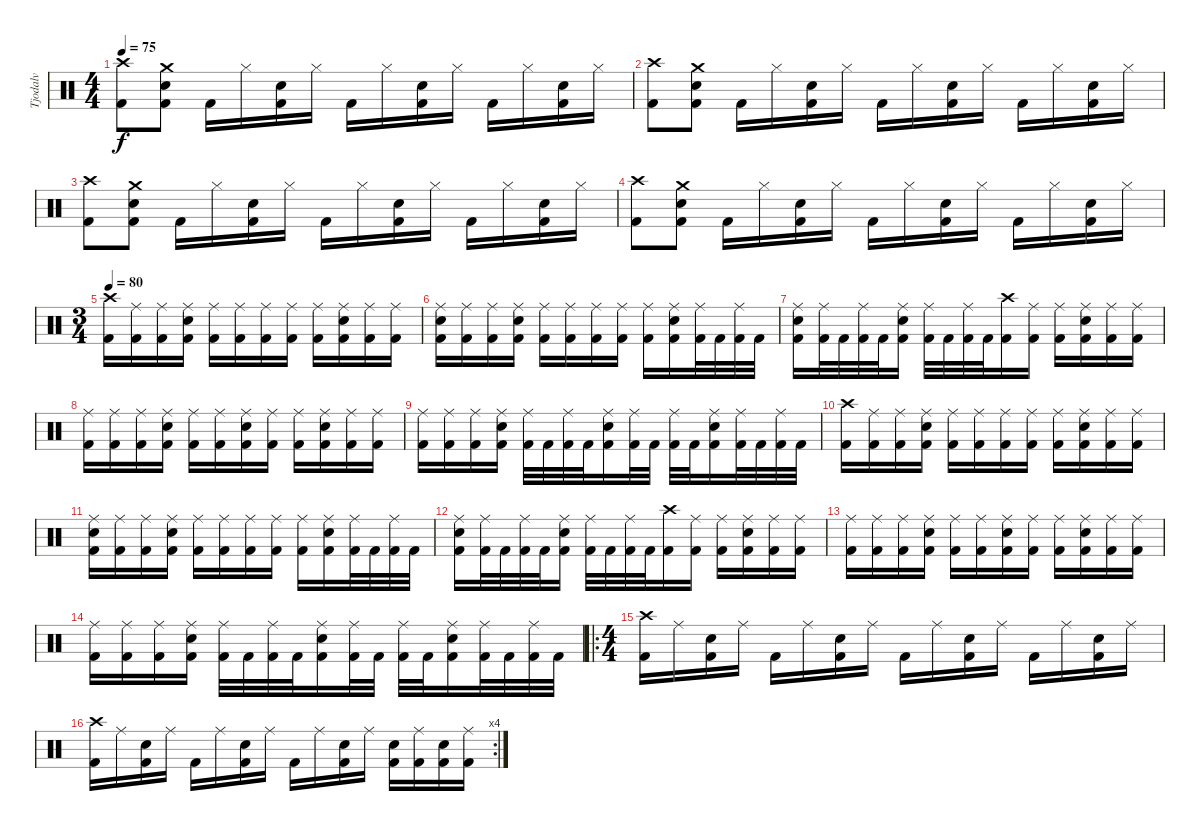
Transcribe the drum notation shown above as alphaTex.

\track ("Tjodalv" "Tjodalv") {instrument percussion}
\staff {score}
\articulation defaults
\ts (4 4)
\tempo 75
\clef neutral
\ks c
("Crash high (hit)" "Kick (hit) 2").8{dy f} ("Crash medium (hit)" "Electric Snare (hit)" "Kick (hit) 2").8 "Kick (hit) 2".16 "Hi-Hat (closed)".16 ("Electric Snare (hit)" "Kick (hit) 2").16 "Hi-Hat (closed)".16 "Kick (hit) 2".16 "Hi-Hat (closed)".16 ("Electric Snare (hit)" "Kick (hit) 2").16 "Hi-Hat (closed)".16 "Kick (hit) 2".16 "Hi-Hat (closed)".16 ("Electric Snare (hit)" "Kick (hit) 2").16 "Hi-Hat (closed)".16 |
("Crash high (hit)" "Kick (hit) 2").8 ("Crash medium (hit)" "Electric Snare (hit)" "Kick (hit) 2").8 "Kick (hit) 2".16 "Hi-Hat (closed)".16 ("Electric Snare (hit)" "Kick (hit) 2").16 "Hi-Hat (closed)".16 "Kick (hit) 2".16 "Hi-Hat (closed)".16 ("Electric Snare (hit)" "Kick (hit) 2").16 "Hi-Hat (closed)".16 "Kick (hit) 2".16 "Hi-Hat (closed)".16 ("Electric Snare (hit)" "Kick (hit) 2").16 "Hi-Hat (closed)".16 |
("Crash high (hit)" "Kick (hit) 2").8 ("Crash medium (hit)" "Electric Snare (hit)" "Kick (hit) 2").8 "Kick (hit) 2".16 "Hi-Hat (closed)".16 ("Electric Snare (hit)" "Kick (hit) 2").16 "Hi-Hat (closed)".16 "Kick (hit) 2".16 "Hi-Hat (closed)".16 ("Electric Snare (hit)" "Kick (hit) 2").16 "Hi-Hat (closed)".16 "Kick (hit) 2".16 "Hi-Hat (closed)".16 ("Electric Snare (hit)" "Kick (hit) 2").16 "Hi-Hat (closed)".16 |
("Crash high (hit)" "Kick (hit) 2").8 ("Crash medium (hit)" "Electric Snare (hit)" "Kick (hit) 2").8 "Kick (hit) 2".16 "Hi-Hat (closed)".16 ("Electric Snare (hit)" "Kick (hit) 2").16 "Hi-Hat (closed)".16 "Kick (hit) 2".16 "Hi-Hat (closed)".16 ("Electric Snare (hit)" "Kick (hit) 2").16 "Hi-Hat (closed)".16 "Kick (hit) 2".16 "Hi-Hat (closed)".16 ("Electric Snare (hit)" "Kick (hit) 2").16 "Hi-Hat (closed)".16 |
\ts (3 4)
\tempo 80
("Crash high (hit)" "Kick (hit) 2").16 ("Ride (middle)" "Kick (hit) 2").16 ("Ride (middle)" "Kick (hit) 2").16 ("Ride (middle)" "Electric Snare (hit)" "Kick (hit) 2").16 ("Ride (middle)" "Kick (hit) 2").16 ("Ride (middle)" "Kick (hit) 2").16 ("Ride (middle)" "Kick (hit) 2").16 ("Ride (middle)" "Kick (hit) 2").16 ("Ride (middle)" "Kick (hit) 2").16 ("Ride (middle)" "Electric Snare (hit)" "Kick (hit) 2").16 ("Ride (middle)" "Kick (hit) 2").16 ("Ride (middle)" "Kick (hit) 2").16 |
("Ride (middle)" "Electric Snare (hit)" "Kick (hit) 2").16 ("Ride (middle)" "Kick (hit) 2").16 ("Ride (middle)" "Kick (hit) 2").16 ("Ride (middle)" "Electric Snare (hit)" "Kick (hit) 2").16 ("Ride (middle)" "Kick (hit) 2").16 ("Ride (middle)" "Kick (hit) 2").16 ("Ride (middle)" "Kick (hit) 2").16 ("Ride (middle)" "Kick (hit) 2").16 ("Ride (middle)" "Kick (hit) 2").16 ("Ride (middle)" "Electric Snare (hit)" "Kick (hit) 2").16 ("Ride (middle)" "Kick (hit) 2").32 "Kick (hit) 2".32 ("Ride (middle)" "Kick (hit) 2").32 "Kick (hit) 2".32 |
("Ride (middle)" "Electric Snare (hit)" "Kick (hit) 2").16 ("Ride (middle)" "Kick (hit) 2").32 "Kick (hit) 2".32 ("Ride (middle)" "Kick (hit) 2").32 "Kick (hit) 2".32 ("Ride (middle)" "Electric Snare (hit)" "Kick (hit) 2").16 ("Ride (middle)" "Kick (hit) 2").32 "Kick (hit) 2".32 ("Ride (middle)" "Kick (hit) 2").32 "Kick (hit) 2".32 ("Crash high (hit)" "Kick (hit) 2").16 ("Ride (middle)" "Kick (hit) 2").16 ("Ride (middle)" "Kick (hit) 2").16 ("Ride (middle)" "Electric Snare (hit)" "Kick (hit) 2").16 ("Ride (middle)" "Kick (hit) 2").16 ("Ride (middle)" "Kick (hit) 2").16 |
("Ride (middle)" "Kick (hit) 2").16 ("Ride (middle)" "Kick (hit) 2").16 ("Ride (middle)" "Kick (hit) 2").16 ("Ride (middle)" "Electric Snare (hit)" "Kick (hit) 2").16 ("Ride (middle)" "Kick (hit) 2").16 ("Ride (middle)" "Kick (hit) 2").16 ("Ride (middle)" "Electric Snare (hit)" "Kick (hit) 2").16 ("Ride (middle)" "Kick (hit) 2").16 ("Ride (middle)" "Kick (hit) 2").16 ("Ride (middle)" "Electric Snare (hit)" "Kick (hit) 2").16 ("Ride (middle)" "Kick (hit) 2").16 ("Ride (middle)" "Kick (hit) 2").16 |
("Ride (middle)" "Kick (hit) 2").16 ("Ride (middle)" "Kick (hit) 2").16 ("Ride (middle)" "Kick (hit) 2").16 ("Ride (middle)" "Electric Snare (hit)" "Kick (hit) 2").16 ("Ride (middle)" "Kick (hit) 2").32 "Kick (hit) 2".32 ("Ride (middle)" "Kick (hit) 2").32 "Kick (hit) 2".32 ("Ride (middle)" "Electric Snare (hit)" "Kick (hit) 2").16 ("Ride (middle)" "Kick (hit) 2").32 "Kick (hit) 2".32 ("Ride (middle)" "Kick (hit) 2").32 "Kick (hit) 2".32 ("Ride (middle)" "Electric Snare (hit)" "Kick (hit) 2").16 ("Ride (middle)" "Kick (hit) 2").32 "Kick (hit) 2".32 ("Ride (middle)" "Kick (hit) 2").32 "Kick (hit) 2".32 |
("Crash high (hit)" "Kick (hit) 2").16 ("Ride (middle)" "Kick (hit) 2").16 ("Ride (middle)" "Kick (hit) 2").16 ("Ride (middle)" "Electric Snare (hit)" "Kick (hit) 2").16 ("Ride (middle)" "Kick (hit) 2").16 ("Ride (middle)" "Kick (hit) 2").16 ("Ride (middle)" "Kick (hit) 2").16 ("Ride (middle)" "Kick (hit) 2").16 ("Ride (middle)" "Kick (hit) 2").16 ("Ride (middle)" "Electric Snare (hit)" "Kick (hit) 2").16 ("Ride (middle)" "Kick (hit) 2").16 ("Ride (middle)" "Kick (hit) 2").16 |
("Ride (middle)" "Electric Snare (hit)" "Kick (hit) 2").16 ("Ride (middle)" "Kick (hit) 2").16 ("Ride (middle)" "Kick (hit) 2").16 ("Ride (middle)" "Electric Snare (hit)" "Kick (hit) 2").16 ("Ride (middle)" "Kick (hit) 2").16 ("Ride (middle)" "Kick (hit) 2").16 ("Ride (middle)" "Kick (hit) 2").16 ("Ride (middle)" "Kick (hit) 2").16 ("Ride (middle)" "Kick (hit) 2").16 ("Ride (middle)" "Electric Snare (hit)" "Kick (hit) 2").16 ("Ride (middle)" "Kick (hit) 2").32 "Kick (hit) 2".32 ("Ride (middle)" "Kick (hit) 2").32 "Kick (hit) 2".32 |
("Ride (middle)" "Electric Snare (hit)" "Kick (hit) 2").16 ("Ride (middle)" "Kick (hit) 2").32 "Kick (hit) 2".32 ("Ride (middle)" "Kick (hit) 2").32 "Kick (hit) 2".32 ("Ride (middle)" "Electric Snare (hit)" "Kick (hit) 2").16 ("Ride (middle)" "Kick (hit) 2").32 "Kick (hit) 2".32 ("Ride (middle)" "Kick (hit) 2").32 "Kick (hit) 2".32 ("Crash high (hit)" "Kick (hit) 2").16 ("Ride (middle)" "Kick (hit) 2").16 ("Ride (middle)" "Kick (hit) 2").16 ("Ride (middle)" "Electric Snare (hit)" "Kick (hit) 2").16 ("Ride (middle)" "Kick (hit) 2").16 ("Ride (middle)" "Kick (hit) 2").16 |
("Ride (middle)" "Kick (hit) 2").16 ("Ride (middle)" "Kick (hit) 2").16 ("Ride (middle)" "Kick (hit) 2").16 ("Ride (middle)" "Electric Snare (hit)" "Kick (hit) 2").16 ("Ride (middle)" "Kick (hit) 2").16 ("Ride (middle)" "Kick (hit) 2").16 ("Ride (middle)" "Electric Snare (hit)" "Kick (hit) 2").16 ("Ride (middle)" "Kick (hit) 2").16 ("Ride (middle)" "Kick (hit) 2").16 ("Ride (middle)" "Electric Snare (hit)" "Kick (hit) 2").16 ("Ride (middle)" "Kick (hit) 2").16 ("Ride (middle)" "Kick (hit) 2").16 |
("Ride (middle)" "Kick (hit) 2").16 ("Ride (middle)" "Kick (hit) 2").16 ("Ride (middle)" "Kick (hit) 2").16 ("Ride (middle)" "Electric Snare (hit)" "Kick (hit) 2").16 ("Ride (middle)" "Kick (hit) 2").32 "Kick (hit) 2".32 ("Ride (middle)" "Kick (hit) 2").32 "Kick (hit) 2".32 ("Ride (middle)" "Electric Snare (hit)" "Kick (hit) 2").16 ("Ride (middle)" "Kick (hit) 2").32 "Kick (hit) 2".32 ("Ride (middle)" "Kick (hit) 2").32 "Kick (hit) 2".32 ("Ride (middle)" "Electric Snare (hit)" "Kick (hit) 2").16 ("Ride (middle)" "Kick (hit) 2").32 "Kick (hit) 2".32 ("Ride (middle)" "Kick (hit) 2").32 "Kick (hit) 2".32 |
\ro
\ts (4 4)
("Crash high (hit)" "Kick (hit) 2").16 "Ride (middle)".16 ("Electric Snare (hit)" "Kick (hit) 2").16 "Ride (middle)".16 "Kick (hit) 2".16 "Ride (middle)".16 ("Electric Snare (hit)" "Kick (hit) 2").16 "Ride (middle)".16 "Kick (hit) 2".16 "Ride (middle)".16 ("Electric Snare (hit)" "Kick (hit) 2").16 "Ride (middle)".16 "Kick (hit) 2".16 "Ride (middle)".16 ("Electric Snare (hit)" "Kick (hit) 2").16 "Ride (middle)".16 |
\rc 4
("Crash high (hit)" "Kick (hit) 2").16 "Ride (middle)".16 ("Electric Snare (hit)" "Kick (hit) 2").16 "Ride (middle)".16 "Kick (hit) 2".16 "Ride (middle)".16 ("Electric Snare (hit)" "Kick (hit) 2").16 "Ride (middle)".16 "Kick (hit) 2".16 "Ride (middle)".16 ("Electric Snare (hit)" "Kick (hit) 2").16 "Ride (middle)".16 ("Electric Snare (hit)" "Kick (hit) 2").16 ("Ride (middle)" "Kick (hit) 2").16 ("Electric Snare (hit)" "Kick (hit) 2").16 ("Ride (middle)" "Kick (hit) 2").16
